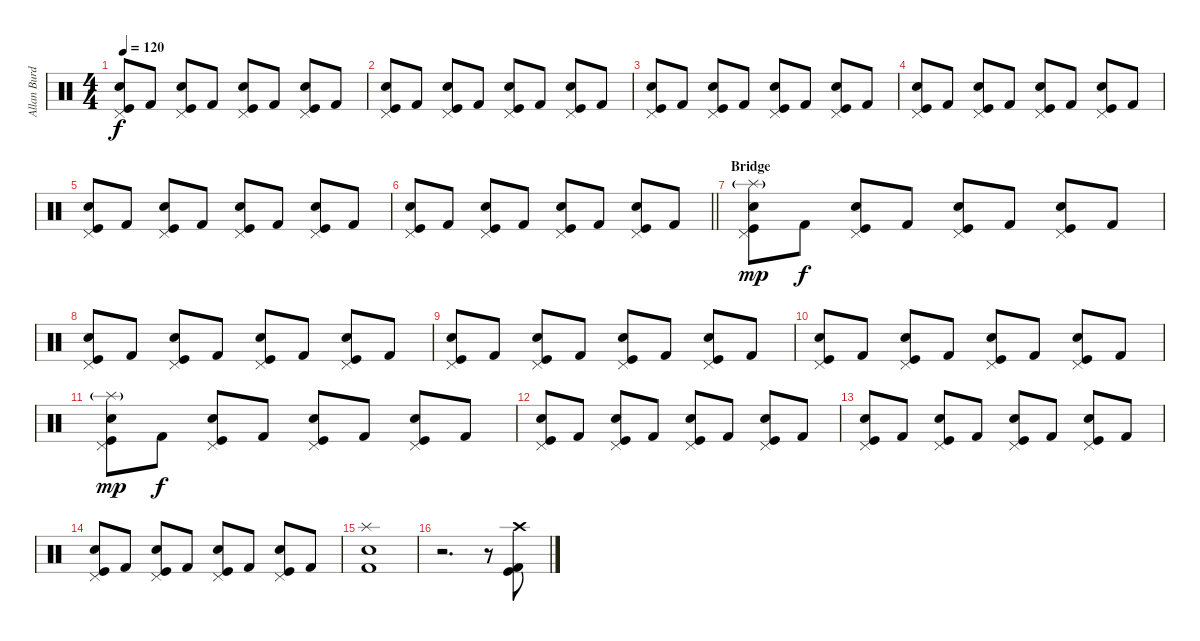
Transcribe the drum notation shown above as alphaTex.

\track ("Allan Burdeos(Drums)" "Allan Burd") {instrument percussion}
\staff {score}
\articulation defaults
\ts (4 4)
\tempo 120
\clef neutral
\ks c
("Pedal Hi-Hat (hit)" "Kick (hit)" "Electric Snare (hit)").8{dy f} "Kick (hit) 2".8 ("Pedal Hi-Hat (hit)" "Kick (hit)" "Electric Snare (hit)").8 "Kick (hit) 2".8 ("Pedal Hi-Hat (hit)" "Kick (hit)" "Electric Snare (hit)").8 "Kick (hit) 2".8 ("Pedal Hi-Hat (hit)" "Kick (hit)" "Electric Snare (hit)").8 "Kick (hit) 2".8 |
("Pedal Hi-Hat (hit)" "Kick (hit)" "Electric Snare (hit)").8 "Kick (hit) 2".8 ("Pedal Hi-Hat (hit)" "Kick (hit)" "Electric Snare (hit)").8 "Kick (hit) 2".8 ("Pedal Hi-Hat (hit)" "Kick (hit)" "Electric Snare (hit)").8 "Kick (hit) 2".8 ("Pedal Hi-Hat (hit)" "Kick (hit)" "Electric Snare (hit)").8 "Kick (hit) 2".8 |
("Pedal Hi-Hat (hit)" "Kick (hit)" "Electric Snare (hit)").8 "Kick (hit) 2".8 ("Pedal Hi-Hat (hit)" "Kick (hit)" "Electric Snare (hit)").8 "Kick (hit) 2".8 ("Pedal Hi-Hat (hit)" "Kick (hit)" "Electric Snare (hit)").8 "Kick (hit) 2".8 ("Pedal Hi-Hat (hit)" "Kick (hit)" "Electric Snare (hit)").8 "Kick (hit) 2".8 |
("Pedal Hi-Hat (hit)" "Kick (hit)" "Electric Snare (hit)").8 "Kick (hit) 2".8 ("Pedal Hi-Hat (hit)" "Kick (hit)" "Electric Snare (hit)").8 "Kick (hit) 2".8 ("Pedal Hi-Hat (hit)" "Kick (hit)" "Electric Snare (hit)").8 "Kick (hit) 2".8 ("Pedal Hi-Hat (hit)" "Kick (hit)" "Electric Snare (hit)").8 "Kick (hit) 2".8 |
("Pedal Hi-Hat (hit)" "Kick (hit)" "Electric Snare (hit)").8 "Kick (hit) 2".8 ("Pedal Hi-Hat (hit)" "Kick (hit)" "Electric Snare (hit)").8 "Kick (hit) 2".8 ("Pedal Hi-Hat (hit)" "Kick (hit)" "Electric Snare (hit)").8 "Kick (hit) 2".8 ("Pedal Hi-Hat (hit)" "Kick (hit)" "Electric Snare (hit)").8 "Kick (hit) 2".8 |
\barLineRight lightlight
("Pedal Hi-Hat (hit)" "Kick (hit)" "Electric Snare (hit)").8 "Kick (hit) 2".8 ("Pedal Hi-Hat (hit)" "Kick (hit)" "Electric Snare (hit)").8 "Kick (hit) 2".8 ("Pedal Hi-Hat (hit)" "Kick (hit)" "Electric Snare (hit)").8 "Kick (hit) 2".8 ("Pedal Hi-Hat (hit)" "Kick (hit)" "Electric Snare (hit)").8 "Kick (hit) 2".8 |
\section ("" "Bridge")
("Pedal Hi-Hat (hit)" "Kick (hit)" "Electric Snare (hit)" "Splash (hit)"{g}).8{dy mp} "Kick (hit) 2".8{dy f} ("Pedal Hi-Hat (hit)" "Kick (hit)" "Electric Snare (hit)").8 "Kick (hit) 2".8 ("Pedal Hi-Hat (hit)" "Kick (hit)" "Electric Snare (hit)").8 "Kick (hit) 2".8 ("Pedal Hi-Hat (hit)" "Kick (hit)" "Electric Snare (hit)").8 "Kick (hit) 2".8 |
("Pedal Hi-Hat (hit)" "Kick (hit)" "Electric Snare (hit)").8 "Kick (hit) 2".8 ("Pedal Hi-Hat (hit)" "Kick (hit)" "Electric Snare (hit)").8 "Kick (hit) 2".8 ("Pedal Hi-Hat (hit)" "Kick (hit)" "Electric Snare (hit)").8 "Kick (hit) 2".8 ("Pedal Hi-Hat (hit)" "Kick (hit)" "Electric Snare (hit)").8 "Kick (hit) 2".8 |
("Pedal Hi-Hat (hit)" "Kick (hit)" "Electric Snare (hit)").8 "Kick (hit) 2".8 ("Pedal Hi-Hat (hit)" "Kick (hit)" "Electric Snare (hit)").8 "Kick (hit) 2".8 ("Pedal Hi-Hat (hit)" "Kick (hit)" "Electric Snare (hit)").8 "Kick (hit) 2".8 ("Pedal Hi-Hat (hit)" "Kick (hit)" "Electric Snare (hit)").8 "Kick (hit) 2".8 |
("Pedal Hi-Hat (hit)" "Kick (hit)" "Electric Snare (hit)").8 "Kick (hit) 2".8 ("Pedal Hi-Hat (hit)" "Kick (hit)" "Electric Snare (hit)").8 "Kick (hit) 2".8 ("Pedal Hi-Hat (hit)" "Kick (hit)" "Electric Snare (hit)").8 "Kick (hit) 2".8 ("Pedal Hi-Hat (hit)" "Kick (hit)" "Electric Snare (hit)").8 "Kick (hit) 2".8 |
("Pedal Hi-Hat (hit)" "Kick (hit)" "Electric Snare (hit)" "Splash (hit)"{g}).8{dy mp} "Kick (hit) 2".8{dy f} ("Pedal Hi-Hat (hit)" "Kick (hit)" "Electric Snare (hit)").8 "Kick (hit) 2".8 ("Pedal Hi-Hat (hit)" "Kick (hit)" "Electric Snare (hit)").8 "Kick (hit) 2".8 ("Pedal Hi-Hat (hit)" "Kick (hit)" "Electric Snare (hit)").8 "Kick (hit) 2".8 |
("Pedal Hi-Hat (hit)" "Kick (hit)" "Electric Snare (hit)").8 "Kick (hit) 2".8 ("Pedal Hi-Hat (hit)" "Kick (hit)" "Electric Snare (hit)").8 "Kick (hit) 2".8 ("Pedal Hi-Hat (hit)" "Kick (hit)" "Electric Snare (hit)").8 "Kick (hit) 2".8 ("Pedal Hi-Hat (hit)" "Kick (hit)" "Electric Snare (hit)").8 "Kick (hit) 2".8 |
("Pedal Hi-Hat (hit)" "Kick (hit)" "Electric Snare (hit)").8 "Kick (hit) 2".8 ("Pedal Hi-Hat (hit)" "Kick (hit)" "Electric Snare (hit)").8 "Kick (hit) 2".8 ("Pedal Hi-Hat (hit)" "Kick (hit)" "Electric Snare (hit)").8 "Kick (hit) 2".8 ("Pedal Hi-Hat (hit)" "Kick (hit)" "Electric Snare (hit)").8 "Kick (hit) 2".8 |
("Pedal Hi-Hat (hit)" "Kick (hit)" "Electric Snare (hit)").8 "Kick (hit) 2".8 ("Pedal Hi-Hat (hit)" "Kick (hit)" "Electric Snare (hit)").8 "Kick (hit) 2".8 ("Pedal Hi-Hat (hit)" "Kick (hit)" "Electric Snare (hit)").8 "Kick (hit) 2".8 ("Pedal Hi-Hat (hit)" "Kick (hit)" "Electric Snare (hit)").8 "Kick (hit) 2".8 |
("Splash (hit)" "Kick (hit) 2" "Electric Snare (hit)").1 |
r.2{d} r.8 ("Crash high (hit)" "Kick (hit) 2" "Kick (hit)").8
